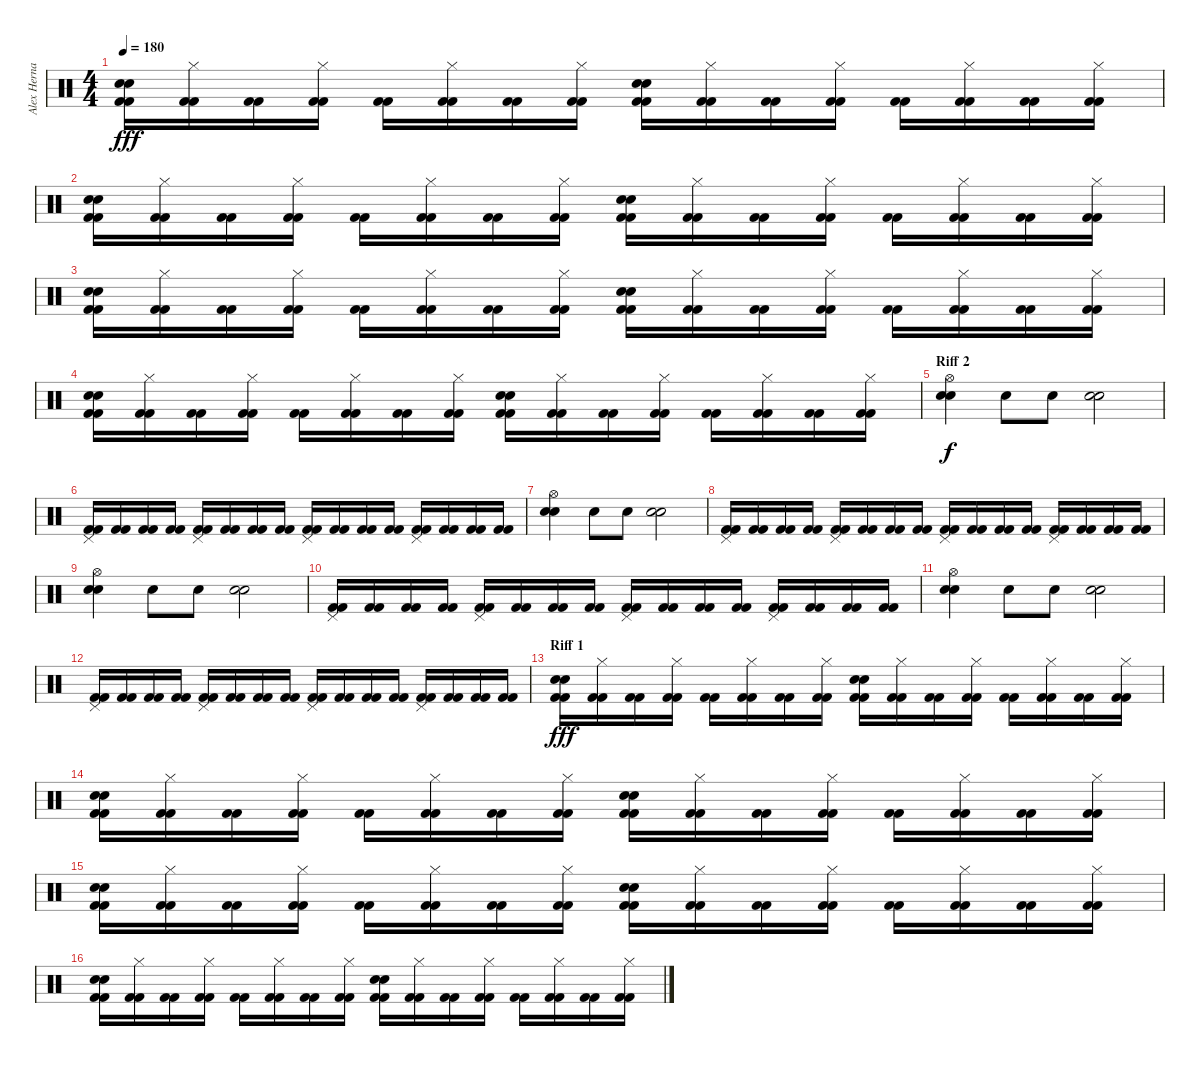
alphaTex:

\track ("Alex Hernandez" "Alex Herna") {instrument percussion}
\staff {score}
\articulation defaults
\ts (4 4)
\tempo 180
\clef neutral
\ks c
("Snare (hit) 2" "Snare (hit) 2" "Kick (hit) 2" "Kick (hit) 2").16{dy fff} ("Hi-Hat (closed)" "Kick (hit) 2" "Kick (hit) 2").16 ("Kick (hit) 2" "Kick (hit) 2").16 ("Hi-Hat (closed)" "Kick (hit) 2" "Kick (hit) 2").16 ("Kick (hit) 2" "Kick (hit) 2").16 ("Hi-Hat (closed)" "Kick (hit) 2" "Kick (hit) 2").16 ("Kick (hit) 2" "Kick (hit) 2").16 ("Hi-Hat (closed)" "Kick (hit) 2" "Kick (hit) 2").16 ("Snare (hit) 2" "Snare (hit) 2" "Kick (hit) 2" "Kick (hit) 2").16 ("Hi-Hat (closed)" "Kick (hit) 2" "Kick (hit) 2").16 ("Kick (hit) 2" "Kick (hit) 2").16 ("Hi-Hat (closed)" "Kick (hit) 2" "Kick (hit) 2").16 ("Kick (hit) 2" "Kick (hit) 2").16 ("Hi-Hat (closed)" "Kick (hit) 2" "Kick (hit) 2").16 ("Kick (hit) 2" "Kick (hit) 2").16 ("Hi-Hat (closed)" "Kick (hit) 2" "Kick (hit) 2").16 |
("Snare (hit) 2" "Snare (hit) 2" "Kick (hit) 2" "Kick (hit) 2").16 ("Hi-Hat (closed)" "Kick (hit) 2" "Kick (hit) 2").16 ("Kick (hit) 2" "Kick (hit) 2").16 ("Hi-Hat (closed)" "Kick (hit) 2" "Kick (hit) 2").16 ("Kick (hit) 2" "Kick (hit) 2").16 ("Hi-Hat (closed)" "Kick (hit) 2" "Kick (hit) 2").16 ("Kick (hit) 2" "Kick (hit) 2").16 ("Hi-Hat (closed)" "Kick (hit) 2" "Kick (hit) 2").16 ("Snare (hit) 2" "Snare (hit) 2" "Kick (hit) 2" "Kick (hit) 2").16 ("Hi-Hat (closed)" "Kick (hit) 2" "Kick (hit) 2").16 ("Kick (hit) 2" "Kick (hit) 2").16 ("Hi-Hat (closed)" "Kick (hit) 2" "Kick (hit) 2").16 ("Kick (hit) 2" "Kick (hit) 2").16 ("Hi-Hat (closed)" "Kick (hit) 2" "Kick (hit) 2").16 ("Kick (hit) 2" "Kick (hit) 2").16 ("Hi-Hat (closed)" "Kick (hit) 2" "Kick (hit) 2").16 |
("Snare (hit) 2" "Snare (hit) 2" "Kick (hit) 2" "Kick (hit) 2").16 ("Hi-Hat (closed)" "Kick (hit) 2" "Kick (hit) 2").16 ("Kick (hit) 2" "Kick (hit) 2").16 ("Hi-Hat (closed)" "Kick (hit) 2" "Kick (hit) 2").16 ("Kick (hit) 2" "Kick (hit) 2").16 ("Hi-Hat (closed)" "Kick (hit) 2" "Kick (hit) 2").16 ("Kick (hit) 2" "Kick (hit) 2").16 ("Hi-Hat (closed)" "Kick (hit) 2" "Kick (hit) 2").16 ("Snare (hit) 2" "Snare (hit) 2" "Kick (hit) 2" "Kick (hit) 2").16 ("Hi-Hat (closed)" "Kick (hit) 2" "Kick (hit) 2").16 ("Kick (hit) 2" "Kick (hit) 2").16 ("Hi-Hat (closed)" "Kick (hit) 2" "Kick (hit) 2").16 ("Kick (hit) 2" "Kick (hit) 2").16 ("Hi-Hat (closed)" "Kick (hit) 2" "Kick (hit) 2").16 ("Kick (hit) 2" "Kick (hit) 2").16 ("Hi-Hat (closed)" "Kick (hit) 2" "Kick (hit) 2").16 |
("Snare (hit) 2" "Snare (hit) 2" "Kick (hit) 2" "Kick (hit) 2").16 ("Hi-Hat (closed)" "Kick (hit) 2" "Kick (hit) 2").16 ("Kick (hit) 2" "Kick (hit) 2").16 ("Hi-Hat (closed)" "Kick (hit) 2" "Kick (hit) 2").16 ("Kick (hit) 2" "Kick (hit) 2").16 ("Hi-Hat (closed)" "Kick (hit) 2" "Kick (hit) 2").16 ("Kick (hit) 2" "Kick (hit) 2").16 ("Hi-Hat (closed)" "Kick (hit) 2" "Kick (hit) 2").16 ("Snare (hit) 2" "Snare (hit) 2" "Kick (hit) 2" "Kick (hit) 2").16 ("Hi-Hat (closed)" "Kick (hit) 2" "Kick (hit) 2").16 ("Kick (hit) 2" "Kick (hit) 2").16 ("Hi-Hat (closed)" "Kick (hit) 2" "Kick (hit) 2").16 ("Kick (hit) 2" "Kick (hit) 2").16 ("Hi-Hat (closed)" "Kick (hit) 2" "Kick (hit) 2").16 ("Kick (hit) 2" "Kick (hit) 2").16 ("Hi-Hat (closed)" "Kick (hit) 2" "Kick (hit) 2").16 |
\section ("" "Riff 2")
("Hi-Hat (open)" "Snare (hit) 2" "Snare (hit) 2").4{dy f} "Snare (hit) 2".8 "Snare (hit) 2".8 ("Snare (hit) 2" "Snare (hit) 2").2 |
("Pedal Hi-Hat (hit)" "Kick (hit) 2" "Kick (hit) 2").16 ("Kick (hit) 2" "Kick (hit) 2").16 ("Kick (hit) 2" "Kick (hit) 2").16 ("Kick (hit) 2" "Kick (hit) 2").16 ("Pedal Hi-Hat (hit)" "Kick (hit) 2" "Kick (hit) 2").16 ("Kick (hit) 2" "Kick (hit) 2").16 ("Kick (hit) 2" "Kick (hit) 2").16 ("Kick (hit) 2" "Kick (hit) 2").16 ("Pedal Hi-Hat (hit)" "Kick (hit) 2" "Kick (hit) 2").16 ("Kick (hit) 2" "Kick (hit) 2").16 ("Kick (hit) 2" "Kick (hit) 2").16 ("Kick (hit) 2" "Kick (hit) 2").16 ("Pedal Hi-Hat (hit)" "Kick (hit) 2" "Kick (hit) 2").16 ("Kick (hit) 2" "Kick (hit) 2").16 ("Kick (hit) 2" "Kick (hit) 2").16 ("Kick (hit) 2" "Kick (hit) 2").16 |
("Hi-Hat (open)" "Snare (hit) 2" "Snare (hit) 2").4 "Snare (hit) 2".8 "Snare (hit) 2".8 ("Snare (hit) 2" "Snare (hit) 2").2 |
("Pedal Hi-Hat (hit)" "Kick (hit) 2" "Kick (hit) 2").16 ("Kick (hit) 2" "Kick (hit) 2").16 ("Kick (hit) 2" "Kick (hit) 2").16 ("Kick (hit) 2" "Kick (hit) 2").16 ("Pedal Hi-Hat (hit)" "Kick (hit) 2" "Kick (hit) 2").16 ("Kick (hit) 2" "Kick (hit) 2").16 ("Kick (hit) 2" "Kick (hit) 2").16 ("Kick (hit) 2" "Kick (hit) 2").16 ("Pedal Hi-Hat (hit)" "Kick (hit) 2" "Kick (hit) 2").16 ("Kick (hit) 2" "Kick (hit) 2").16 ("Kick (hit) 2" "Kick (hit) 2").16 ("Kick (hit) 2" "Kick (hit) 2").16 ("Pedal Hi-Hat (hit)" "Kick (hit) 2" "Kick (hit) 2").16 ("Kick (hit) 2" "Kick (hit) 2").16 ("Kick (hit) 2" "Kick (hit) 2").16 ("Kick (hit) 2" "Kick (hit) 2").16 |
("Hi-Hat (open)" "Snare (hit) 2" "Snare (hit) 2").4 "Snare (hit) 2".8 "Snare (hit) 2".8 ("Snare (hit) 2" "Snare (hit) 2").2 |
("Pedal Hi-Hat (hit)" "Kick (hit) 2" "Kick (hit) 2").16 ("Kick (hit) 2" "Kick (hit) 2").16 ("Kick (hit) 2" "Kick (hit) 2").16 ("Kick (hit) 2" "Kick (hit) 2").16 ("Pedal Hi-Hat (hit)" "Kick (hit) 2" "Kick (hit) 2").16 ("Kick (hit) 2" "Kick (hit) 2").16 ("Kick (hit) 2" "Kick (hit) 2").16 ("Kick (hit) 2" "Kick (hit) 2").16 ("Pedal Hi-Hat (hit)" "Kick (hit) 2" "Kick (hit) 2").16 ("Kick (hit) 2" "Kick (hit) 2").16 ("Kick (hit) 2" "Kick (hit) 2").16 ("Kick (hit) 2" "Kick (hit) 2").16 ("Pedal Hi-Hat (hit)" "Kick (hit) 2" "Kick (hit) 2").16 ("Kick (hit) 2" "Kick (hit) 2").16 ("Kick (hit) 2" "Kick (hit) 2").16 ("Kick (hit) 2" "Kick (hit) 2").16 |
("Hi-Hat (open)" "Snare (hit) 2" "Snare (hit) 2").4 "Snare (hit) 2".8 "Snare (hit) 2".8 ("Snare (hit) 2" "Snare (hit) 2").2 |
("Pedal Hi-Hat (hit)" "Kick (hit) 2" "Kick (hit) 2").16 ("Kick (hit) 2" "Kick (hit) 2").16 ("Kick (hit) 2" "Kick (hit) 2").16 ("Kick (hit) 2" "Kick (hit) 2").16 ("Pedal Hi-Hat (hit)" "Kick (hit) 2" "Kick (hit) 2").16 ("Kick (hit) 2" "Kick (hit) 2").16 ("Kick (hit) 2" "Kick (hit) 2").16 ("Kick (hit) 2" "Kick (hit) 2").16 ("Pedal Hi-Hat (hit)" "Kick (hit) 2" "Kick (hit) 2").16 ("Kick (hit) 2" "Kick (hit) 2").16 ("Kick (hit) 2" "Kick (hit) 2").16 ("Kick (hit) 2" "Kick (hit) 2").16 ("Pedal Hi-Hat (hit)" "Kick (hit) 2" "Kick (hit) 2").16 ("Kick (hit) 2" "Kick (hit) 2").16 ("Kick (hit) 2" "Kick (hit) 2").16 ("Kick (hit) 2" "Kick (hit) 2").16 |
\section ("" "Riff 1")
("Snare (hit) 2" "Snare (hit) 2" "Kick (hit) 2" "Kick (hit) 2").16{dy fff} ("Hi-Hat (closed)" "Kick (hit) 2" "Kick (hit) 2").16 ("Kick (hit) 2" "Kick (hit) 2").16 ("Hi-Hat (closed)" "Kick (hit) 2" "Kick (hit) 2").16 ("Kick (hit) 2" "Kick (hit) 2").16 ("Hi-Hat (closed)" "Kick (hit) 2" "Kick (hit) 2").16 ("Kick (hit) 2" "Kick (hit) 2").16 ("Hi-Hat (closed)" "Kick (hit) 2" "Kick (hit) 2").16 ("Snare (hit) 2" "Snare (hit) 2" "Kick (hit) 2" "Kick (hit) 2").16 ("Hi-Hat (closed)" "Kick (hit) 2" "Kick (hit) 2").16 ("Kick (hit) 2" "Kick (hit) 2").16 ("Hi-Hat (closed)" "Kick (hit) 2" "Kick (hit) 2").16 ("Kick (hit) 2" "Kick (hit) 2").16 ("Hi-Hat (closed)" "Kick (hit) 2" "Kick (hit) 2").16 ("Kick (hit) 2" "Kick (hit) 2").16 ("Hi-Hat (closed)" "Kick (hit) 2" "Kick (hit) 2").16 |
("Snare (hit) 2" "Snare (hit) 2" "Kick (hit) 2" "Kick (hit) 2").16 ("Hi-Hat (closed)" "Kick (hit) 2" "Kick (hit) 2").16 ("Kick (hit) 2" "Kick (hit) 2").16 ("Hi-Hat (closed)" "Kick (hit) 2" "Kick (hit) 2").16 ("Kick (hit) 2" "Kick (hit) 2").16 ("Hi-Hat (closed)" "Kick (hit) 2" "Kick (hit) 2").16 ("Kick (hit) 2" "Kick (hit) 2").16 ("Hi-Hat (closed)" "Kick (hit) 2" "Kick (hit) 2").16 ("Snare (hit) 2" "Snare (hit) 2" "Kick (hit) 2" "Kick (hit) 2").16 ("Hi-Hat (closed)" "Kick (hit) 2" "Kick (hit) 2").16 ("Kick (hit) 2" "Kick (hit) 2").16 ("Hi-Hat (closed)" "Kick (hit) 2" "Kick (hit) 2").16 ("Kick (hit) 2" "Kick (hit) 2").16 ("Hi-Hat (closed)" "Kick (hit) 2" "Kick (hit) 2").16 ("Kick (hit) 2" "Kick (hit) 2").16 ("Hi-Hat (closed)" "Kick (hit) 2" "Kick (hit) 2").16 |
("Snare (hit) 2" "Snare (hit) 2" "Kick (hit) 2" "Kick (hit) 2").16 ("Hi-Hat (closed)" "Kick (hit) 2" "Kick (hit) 2").16 ("Kick (hit) 2" "Kick (hit) 2").16 ("Hi-Hat (closed)" "Kick (hit) 2" "Kick (hit) 2").16 ("Kick (hit) 2" "Kick (hit) 2").16 ("Hi-Hat (closed)" "Kick (hit) 2" "Kick (hit) 2").16 ("Kick (hit) 2" "Kick (hit) 2").16 ("Hi-Hat (closed)" "Kick (hit) 2" "Kick (hit) 2").16 ("Snare (hit) 2" "Snare (hit) 2" "Kick (hit) 2" "Kick (hit) 2").16 ("Hi-Hat (closed)" "Kick (hit) 2" "Kick (hit) 2").16 ("Kick (hit) 2" "Kick (hit) 2").16 ("Hi-Hat (closed)" "Kick (hit) 2" "Kick (hit) 2").16 ("Kick (hit) 2" "Kick (hit) 2").16 ("Hi-Hat (closed)" "Kick (hit) 2" "Kick (hit) 2").16 ("Kick (hit) 2" "Kick (hit) 2").16 ("Hi-Hat (closed)" "Kick (hit) 2" "Kick (hit) 2").16 |
("Snare (hit) 2" "Snare (hit) 2" "Kick (hit) 2" "Kick (hit) 2").16 ("Hi-Hat (closed)" "Kick (hit) 2" "Kick (hit) 2").16 ("Kick (hit) 2" "Kick (hit) 2").16 ("Hi-Hat (closed)" "Kick (hit) 2" "Kick (hit) 2").16 ("Kick (hit) 2" "Kick (hit) 2").16 ("Hi-Hat (closed)" "Kick (hit) 2" "Kick (hit) 2").16 ("Kick (hit) 2" "Kick (hit) 2").16 ("Hi-Hat (closed)" "Kick (hit) 2" "Kick (hit) 2").16 ("Snare (hit) 2" "Snare (hit) 2" "Kick (hit) 2" "Kick (hit) 2").16 ("Hi-Hat (closed)" "Kick (hit) 2" "Kick (hit) 2").16 ("Kick (hit) 2" "Kick (hit) 2").16 ("Hi-Hat (closed)" "Kick (hit) 2" "Kick (hit) 2").16 ("Kick (hit) 2" "Kick (hit) 2").16 ("Hi-Hat (closed)" "Kick (hit) 2" "Kick (hit) 2").16 ("Kick (hit) 2" "Kick (hit) 2").16 ("Hi-Hat (closed)" "Kick (hit) 2" "Kick (hit) 2").16
